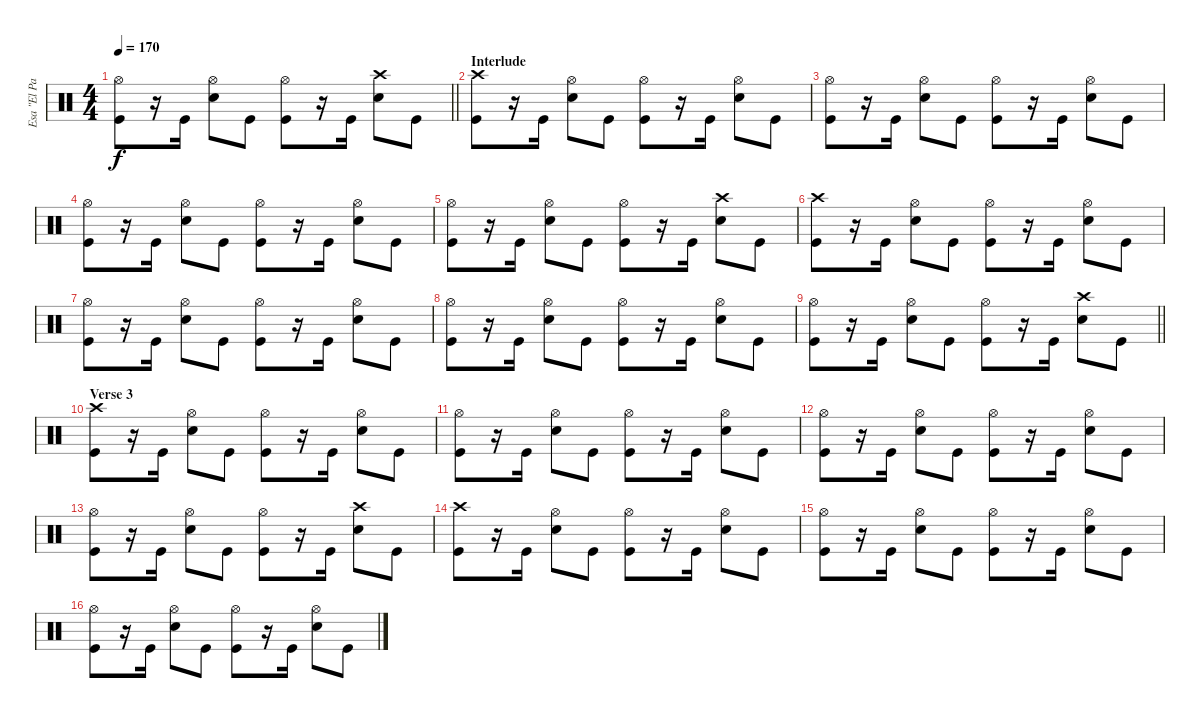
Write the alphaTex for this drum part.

\track ("Esa \"El Pasaderia\" Palosaari" "Esa \"El Pa") {instrument percussion}
\staff {score}
\articulation defaults
\ts (4 4)
\tempo 170
\clef neutral
\barLineRight lightlight
\ks c
("Hi-Hat (open)" "Kick (hit)").8{dy f} r.16 "Kick (hit)".16 ("Hi-Hat (open)" "Snare (hit) 2").8 "Kick (hit)".8 ("Hi-Hat (open)" "Kick (hit)").8 r.16 "Kick (hit)".16 ("Crash high (hit)" "Snare (hit) 2").8 "Kick (hit)".8 |
\section ("" "Interlude")
("Crash high (hit)" "Kick (hit)").8 r.16 "Kick (hit)".16 ("Hi-Hat (open)" "Snare (hit) 2").8 "Kick (hit)".8 ("Hi-Hat (open)" "Kick (hit)").8 r.16 "Kick (hit)".16 ("Hi-Hat (open)" "Snare (hit) 2").8 "Kick (hit)".8 |
("Hi-Hat (open)" "Kick (hit)").8 r.16 "Kick (hit)".16 ("Hi-Hat (open)" "Snare (hit) 2").8 "Kick (hit)".8 ("Hi-Hat (open)" "Kick (hit)").8 r.16 "Kick (hit)".16 ("Hi-Hat (open)" "Snare (hit) 2").8 "Kick (hit)".8 |
("Hi-Hat (open)" "Kick (hit)").8 r.16 "Kick (hit)".16 ("Hi-Hat (open)" "Snare (hit) 2").8 "Kick (hit)".8 ("Hi-Hat (open)" "Kick (hit)").8 r.16 "Kick (hit)".16 ("Hi-Hat (open)" "Snare (hit) 2").8 "Kick (hit)".8 |
("Hi-Hat (open)" "Kick (hit)").8 r.16 "Kick (hit)".16 ("Hi-Hat (open)" "Snare (hit) 2").8 "Kick (hit)".8 ("Hi-Hat (open)" "Kick (hit)").8 r.16 "Kick (hit)".16 ("Crash high (hit)" "Snare (hit) 2").8 "Kick (hit)".8 |
("Crash high (hit)" "Kick (hit)").8 r.16 "Kick (hit)".16 ("Hi-Hat (open)" "Snare (hit) 2").8 "Kick (hit)".8 ("Hi-Hat (open)" "Kick (hit)").8 r.16 "Kick (hit)".16 ("Hi-Hat (open)" "Snare (hit) 2").8 "Kick (hit)".8 |
("Hi-Hat (open)" "Kick (hit)").8 r.16 "Kick (hit)".16 ("Hi-Hat (open)" "Snare (hit) 2").8 "Kick (hit)".8 ("Hi-Hat (open)" "Kick (hit)").8 r.16 "Kick (hit)".16 ("Hi-Hat (open)" "Snare (hit) 2").8 "Kick (hit)".8 |
("Hi-Hat (open)" "Kick (hit)").8 r.16 "Kick (hit)".16 ("Hi-Hat (open)" "Snare (hit) 2").8 "Kick (hit)".8 ("Hi-Hat (open)" "Kick (hit)").8 r.16 "Kick (hit)".16 ("Hi-Hat (open)" "Snare (hit) 2").8 "Kick (hit)".8 |
\barLineRight lightlight
("Hi-Hat (open)" "Kick (hit)").8 r.16 "Kick (hit)".16 ("Hi-Hat (open)" "Snare (hit) 2").8 "Kick (hit)".8 ("Hi-Hat (open)" "Kick (hit)").8 r.16 "Kick (hit)".16 ("Crash high (hit)" "Snare (hit) 2").8 "Kick (hit)".8 |
\section ("" "Verse 3")
("Crash high (hit)" "Kick (hit)").8 r.16 "Kick (hit)".16 ("Hi-Hat (open)" "Snare (hit) 2").8 "Kick (hit)".8 ("Hi-Hat (open)" "Kick (hit)").8 r.16 "Kick (hit)".16 ("Hi-Hat (open)" "Snare (hit) 2").8 "Kick (hit)".8 |
("Hi-Hat (open)" "Kick (hit)").8 r.16 "Kick (hit)".16 ("Hi-Hat (open)" "Snare (hit) 2").8 "Kick (hit)".8 ("Hi-Hat (open)" "Kick (hit)").8 r.16 "Kick (hit)".16 ("Hi-Hat (open)" "Snare (hit) 2").8 "Kick (hit)".8 |
("Hi-Hat (open)" "Kick (hit)").8 r.16 "Kick (hit)".16 ("Hi-Hat (open)" "Snare (hit) 2").8 "Kick (hit)".8 ("Hi-Hat (open)" "Kick (hit)").8 r.16 "Kick (hit)".16 ("Hi-Hat (open)" "Snare (hit) 2").8 "Kick (hit)".8 |
("Hi-Hat (open)" "Kick (hit)").8 r.16 "Kick (hit)".16 ("Hi-Hat (open)" "Snare (hit) 2").8 "Kick (hit)".8 ("Hi-Hat (open)" "Kick (hit)").8 r.16 "Kick (hit)".16 ("Crash high (hit)" "Snare (hit) 2").8 "Kick (hit)".8 |
("Crash high (hit)" "Kick (hit)").8 r.16 "Kick (hit)".16 ("Hi-Hat (open)" "Snare (hit) 2").8 "Kick (hit)".8 ("Hi-Hat (open)" "Kick (hit)").8 r.16 "Kick (hit)".16 ("Hi-Hat (open)" "Snare (hit) 2").8 "Kick (hit)".8 |
("Hi-Hat (open)" "Kick (hit)").8 r.16 "Kick (hit)".16 ("Hi-Hat (open)" "Snare (hit) 2").8 "Kick (hit)".8 ("Hi-Hat (open)" "Kick (hit)").8 r.16 "Kick (hit)".16 ("Hi-Hat (open)" "Snare (hit) 2").8 "Kick (hit)".8 |
("Hi-Hat (open)" "Kick (hit)").8 r.16 "Kick (hit)".16 ("Hi-Hat (open)" "Snare (hit) 2").8 "Kick (hit)".8 ("Hi-Hat (open)" "Kick (hit)").8 r.16 "Kick (hit)".16 ("Hi-Hat (open)" "Snare (hit) 2").8 "Kick (hit)".8
